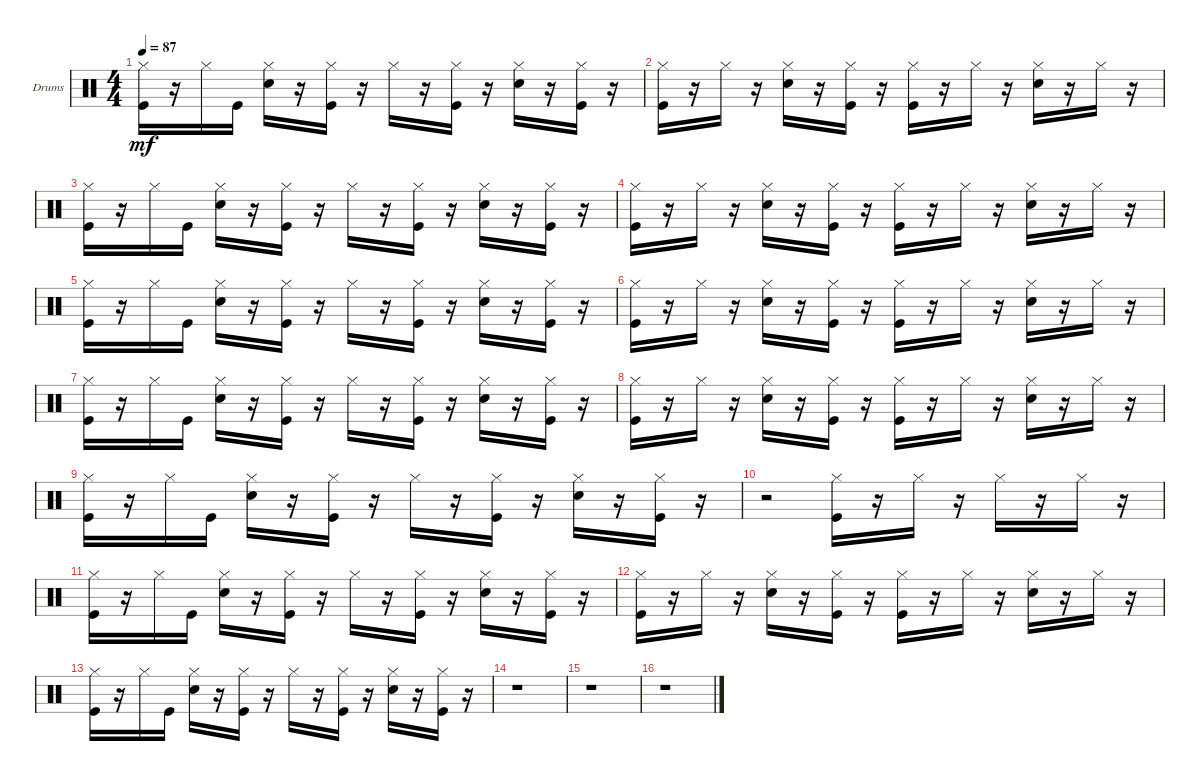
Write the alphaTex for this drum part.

\bracketExtendMode groupsimilarinstruments
\firstSystemTrackNameOrientation horizontal
\otherSystemsTrackNameOrientation horizontal
\track ("MIDI out" "Drums") {instrument percussion}
\staff {score}
\articulation defaults
\ts (4 4)
\tempo 87
\clef neutral
\ks c
("Hi-Hat (closed)" "Kick (hit)").16{dy mf} r.16 "Hi-Hat (closed)".16 "Kick (hit)".16 ("Snare (hit) 2" "Hi-Hat (closed)").16 r.16 ("Kick (hit)" "Hi-Hat (closed)").16 r.16 "Hi-Hat (closed)".16 r.16 ("Kick (hit)" "Hi-Hat (closed)").16 r.16 ("Hi-Hat (closed)" "Snare (hit) 2").16 r.16 ("Hi-Hat (closed)" "Kick (hit)").16 r.16 |
("Kick (hit)" "Hi-Hat (closed)").16 r.16 "Hi-Hat (closed)".16 r.16 ("Snare (hit) 2" "Hi-Hat (closed)").16 r.16 ("Hi-Hat (closed)" "Kick (hit)").16 r.16 ("Hi-Hat (closed)" "Kick (hit)").16 r.16 "Hi-Hat (closed)".16 r.16 ("Snare (hit) 2" "Hi-Hat (closed)").16 r.16 "Hi-Hat (closed)".16 r.16 |
("Kick (hit)" "Hi-Hat (closed)").16 r.16 "Hi-Hat (closed)".16 "Kick (hit)".16 ("Hi-Hat (closed)" "Snare (hit) 2").16 r.16 ("Hi-Hat (closed)" "Kick (hit)").16 r.16 "Hi-Hat (closed)".16 r.16 ("Kick (hit)" "Hi-Hat (closed)").16 r.16 ("Hi-Hat (closed)" "Snare (hit) 2").16 r.16 ("Hi-Hat (closed)" "Kick (hit)").16 r.16 |
("Kick (hit)" "Hi-Hat (closed)").16 r.16 "Hi-Hat (closed)".16 r.16 ("Snare (hit) 2" "Hi-Hat (closed)").16 r.16 ("Hi-Hat (closed)" "Kick (hit)").16 r.16 ("Hi-Hat (closed)" "Kick (hit)").16 r.16 "Hi-Hat (closed)".16 r.16 ("Snare (hit) 2" "Hi-Hat (closed)").16 r.16 "Hi-Hat (closed)".16 r.16 |
("Kick (hit)" "Hi-Hat (closed)").16 r.16 "Hi-Hat (closed)".16 "Kick (hit)".16 ("Hi-Hat (closed)" "Snare (hit) 2").16 r.16 ("Kick (hit)" "Hi-Hat (closed)").16 r.16 "Hi-Hat (closed)".16 r.16 ("Kick (hit)" "Hi-Hat (closed)").16 r.16 ("Snare (hit) 2" "Hi-Hat (closed)").16 r.16 ("Hi-Hat (closed)" "Kick (hit)").16 r.16 |
("Kick (hit)" "Hi-Hat (closed)").16 r.16 "Hi-Hat (closed)".16 r.16 ("Hi-Hat (closed)" "Snare (hit) 2").16 r.16 ("Hi-Hat (closed)" "Kick (hit)").16 r.16 ("Hi-Hat (closed)" "Kick (hit)").16 r.16 "Hi-Hat (closed)".16 r.16 ("Hi-Hat (closed)" "Snare (hit) 2").16 r.16 "Hi-Hat (closed)".16 r.16 |
("Kick (hit)" "Hi-Hat (closed)").16 r.16 "Hi-Hat (closed)".16 "Kick (hit)".16 ("Hi-Hat (closed)" "Snare (hit) 2").16 r.16 ("Kick (hit)" "Hi-Hat (closed)").16 r.16 "Hi-Hat (closed)".16 r.16 ("Hi-Hat (closed)" "Kick (hit)").16 r.16 ("Snare (hit) 2" "Hi-Hat (closed)").16 r.16 ("Kick (hit)" "Hi-Hat (closed)").16 r.16 |
("Kick (hit)" "Hi-Hat (closed)").16 r.16 "Hi-Hat (closed)".16 r.16 ("Hi-Hat (closed)" "Snare (hit) 2").16 r.16 ("Kick (hit)" "Hi-Hat (closed)").16 r.16 ("Kick (hit)" "Hi-Hat (closed)").16 r.16 "Hi-Hat (closed)".16 r.16 ("Snare (hit) 2" "Hi-Hat (closed)").16 r.16 "Hi-Hat (closed)".16 r.16 |
("Kick (hit)" "Hi-Hat (closed)").16 r.16 "Hi-Hat (closed)".16 "Kick (hit)".16 ("Snare (hit) 2" "Hi-Hat (closed)").16 r.16 ("Hi-Hat (closed)" "Kick (hit)").16 r.16 "Hi-Hat (closed)".16 r.16 ("Hi-Hat (closed)" "Kick (hit)").16 r.16 ("Snare (hit) 2" "Hi-Hat (closed)").16 r.16 ("Hi-Hat (closed)" "Kick (hit)").16 r.16 |
r.2 ("Kick (hit)" "Hi-Hat (closed)").16 r.16 "Hi-Hat (closed)".16 r.16 "Hi-Hat (closed)".16 r.16 "Hi-Hat (closed)".16 r.16 |
("Hi-Hat (closed)" "Kick (hit)").16 r.16 "Hi-Hat (closed)".16 "Kick (hit)".16 ("Hi-Hat (closed)" "Snare (hit) 2").16 r.16 ("Hi-Hat (closed)" "Kick (hit)").16 r.16 "Hi-Hat (closed)".16 r.16 ("Hi-Hat (closed)" "Kick (hit)").16 r.16 ("Snare (hit) 2" "Hi-Hat (closed)").16 r.16 ("Kick (hit)" "Hi-Hat (closed)").16 r.16 |
("Kick (hit)" "Hi-Hat (closed)").16 r.16 "Hi-Hat (closed)".16 r.16 ("Hi-Hat (closed)" "Snare (hit) 2").16 r.16 ("Kick (hit)" "Hi-Hat (closed)").16 r.16 ("Hi-Hat (closed)" "Kick (hit)").16 r.16 "Hi-Hat (closed)".16 r.16 ("Snare (hit) 2" "Hi-Hat (closed)").16 r.16 "Hi-Hat (closed)".16 r.16 |
("Hi-Hat (closed)" "Kick (hit)").16 r.16 "Hi-Hat (closed)".16 "Kick (hit)".16 ("Snare (hit) 2" "Hi-Hat (closed)").16 r.16 ("Kick (hit)" "Hi-Hat (closed)").16 r.16 "Hi-Hat (closed)".16 r.16 ("Kick (hit)" "Hi-Hat (closed)").16 r.16 ("Snare (hit) 2" "Hi-Hat (closed)").16 r.16 ("Hi-Hat (closed)" "Kick (hit)").16 r.16 |
r.1 |
r.1 |
r.1
